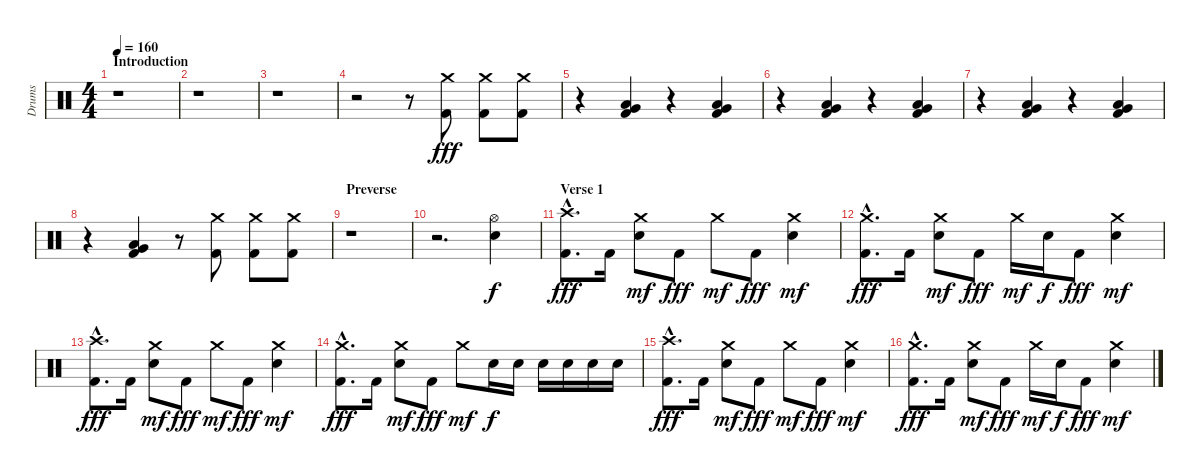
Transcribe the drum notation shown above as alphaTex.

\track ("Drums" "Drums") {instrument percussion}
\staff {score}
\articulation defaults
\ts (4 4)
\section ("" "Introduction")
\tempo 160
\clef neutral
\ks c
r.1{dy fff} |
r.1 |
r.1 |
r.2 r.8 ("Crash medium (hit)" "Kick (hit) 2").8 ("Crash medium (hit)" "Kick (hit) 2").8 ("Crash medium (hit)" "Kick (hit) 2").8 |
r.4 ("Very Low Tom (hit)" "Low Floor Tom (hit)" "Kick (hit) 2").4 r.4 ("Very Low Tom (hit)" "Low Floor Tom (hit)" "Kick (hit) 2").4 |
r.4 ("Very Low Tom (hit)" "Low Floor Tom (hit)" "Kick (hit) 2").4 r.4 ("Very Low Tom (hit)" "Low Floor Tom (hit)" "Kick (hit) 2").4 |
r.4 ("Very Low Tom (hit)" "Low Floor Tom (hit)" "Kick (hit) 2").4 r.4 ("Very Low Tom (hit)" "Low Floor Tom (hit)" "Kick (hit) 2").4 |
r.4 ("Very Low Tom (hit)" "Low Floor Tom (hit)" "Kick (hit) 2").4 r.8 ("Crash medium (hit)" "Kick (hit) 2").8 ("Crash medium (hit)" "Kick (hit) 2").8 ("Crash medium (hit)" "Kick (hit) 2").8 |
\section ("" "Preverse")
r.1 |
r.2{d} ("Hi-Hat (open)" "Snare (hit) 2").4{dy f} |
\section ("" "Verse 1")
("Crash high (hit)"{hac} "Kick (hit) 2"{hac}).8{d dy fff} "Kick (hit) 2".16 ("Crash medium (hit)" "Snare (hit) 2").8{dy mf} "Kick (hit) 2".8{dy fff} "Crash medium (hit)".8{dy mf} "Kick (hit) 2".8{dy fff} ("Crash medium (hit)" "Snare (hit) 2").4{dy mf} |
("Crash medium (hit)"{hac} "Kick (hit) 2"{hac}).8{d dy fff} "Kick (hit) 2".16 ("Crash medium (hit)" "Snare (hit) 2").8{dy mf} "Kick (hit) 2".8{dy fff} "Crash medium (hit)".16{dy mf} "Snare (hit) 2".16{dy f} "Kick (hit) 2".8{dy fff} ("Crash medium (hit)" "Snare (hit) 2").4{dy mf} |
("Crash high (hit)"{hac} "Kick (hit) 2"{hac}).8{d dy fff} "Kick (hit) 2".16 ("Crash medium (hit)" "Snare (hit) 2").8{dy mf} "Kick (hit) 2".8{dy fff} "Crash medium (hit)".8{dy mf} "Kick (hit) 2".8{dy fff} ("Crash medium (hit)" "Snare (hit) 2").4{dy mf} |
("Crash medium (hit)"{hac} "Kick (hit) 2"{hac}).8{d dy fff} "Kick (hit) 2".16 ("Crash medium (hit)" "Snare (hit) 2").8{dy mf} "Kick (hit) 2".8{dy fff} "Crash medium (hit)".8{dy mf} "Snare (hit) 2".16{dy f} "Snare (hit) 2".16 "Snare (hit) 2".16 "Snare (hit) 2".16 "Snare (hit) 2".16 "Snare (hit) 2".16 |
("Crash high (hit)"{hac} "Kick (hit) 2"{hac}).8{d dy fff} "Kick (hit) 2".16 ("Crash medium (hit)" "Snare (hit) 2").8{dy mf} "Kick (hit) 2".8{dy fff} "Crash medium (hit)".8{dy mf} "Kick (hit) 2".8{dy fff} ("Crash medium (hit)" "Snare (hit) 2").4{dy mf} |
("Crash medium (hit)"{hac} "Kick (hit) 2"{hac}).8{d dy fff} "Kick (hit) 2".16 ("Crash medium (hit)" "Snare (hit) 2").8{dy mf} "Kick (hit) 2".8{dy fff} "Crash medium (hit)".16{dy mf} "Snare (hit) 2".16{dy f} "Kick (hit) 2".8{dy fff} ("Crash medium (hit)" "Snare (hit) 2").4{dy mf}
